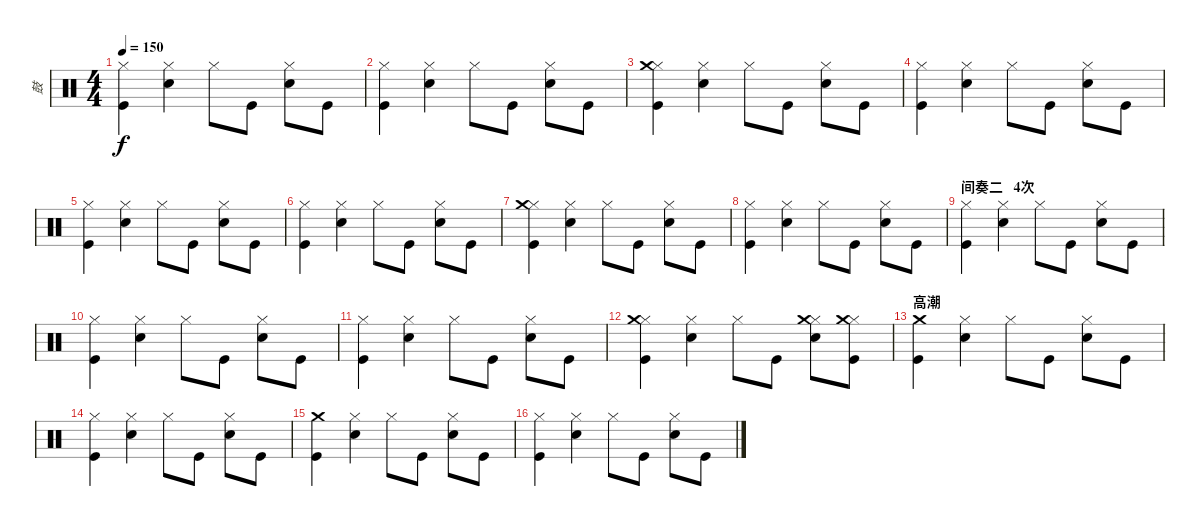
\track ("鼓" "鼓") {instrument percussion}
\staff {score}
\articulation defaults
\ts (4 4)
\tempo 150
\clef neutral
\ks c
("Kick (hit)" "Hi-Hat (closed)").4{dy f} ("Snare (hit) 2" "Hi-Hat (closed)").4 "Hi-Hat (closed)".8 "Kick (hit)".8 ("Snare (hit) 2" "Hi-Hat (closed)").8 "Kick (hit)".8 |
("Kick (hit)" "Hi-Hat (closed)").4 ("Snare (hit) 2" "Hi-Hat (closed)").4 "Hi-Hat (closed)".8 "Kick (hit)".8 ("Snare (hit) 2" "Hi-Hat (closed)").8 "Kick (hit)".8 |
("Kick (hit)" "Hi-Hat (closed)" "Crash medium (hit)").4 ("Snare (hit) 2" "Hi-Hat (closed)").4 "Hi-Hat (closed)".8 "Kick (hit)".8 ("Snare (hit) 2" "Hi-Hat (closed)").8 "Kick (hit)".8 |
("Kick (hit)" "Hi-Hat (closed)").4 ("Snare (hit) 2" "Hi-Hat (closed)").4 "Hi-Hat (closed)".8 "Kick (hit)".8 ("Snare (hit) 2" "Hi-Hat (closed)").8 "Kick (hit)".8 |
("Kick (hit)" "Hi-Hat (closed)").4 ("Snare (hit) 2" "Hi-Hat (closed)").4 "Hi-Hat (closed)".8 "Kick (hit)".8 ("Snare (hit) 2" "Hi-Hat (closed)").8 "Kick (hit)".8 |
("Kick (hit)" "Hi-Hat (closed)").4 ("Snare (hit) 2" "Hi-Hat (closed)").4 "Hi-Hat (closed)".8 "Kick (hit)".8 ("Snare (hit) 2" "Hi-Hat (closed)").8 "Kick (hit)".8 |
("Kick (hit)" "Hi-Hat (closed)" "Crash medium (hit)").4 ("Snare (hit) 2" "Hi-Hat (closed)").4 "Hi-Hat (closed)".8 "Kick (hit)".8 ("Snare (hit) 2" "Hi-Hat (closed)").8 "Kick (hit)".8 |
("Kick (hit)" "Hi-Hat (closed)").4 ("Snare (hit) 2" "Hi-Hat (closed)").4 "Hi-Hat (closed)".8 "Kick (hit)".8 ("Snare (hit) 2" "Hi-Hat (closed)").8 "Kick (hit)".8 |
\section ("" "间奏二   4次")
("Kick (hit)" "Hi-Hat (closed)").4 ("Snare (hit) 2" "Hi-Hat (closed)").4 "Hi-Hat (closed)".8 "Kick (hit)".8 ("Snare (hit) 2" "Hi-Hat (closed)").8 "Kick (hit)".8 |
("Kick (hit)" "Hi-Hat (closed)").4 ("Snare (hit) 2" "Hi-Hat (closed)").4 "Hi-Hat (closed)".8 "Kick (hit)".8 ("Snare (hit) 2" "Hi-Hat (closed)").8 "Kick (hit)".8 |
("Kick (hit)" "Hi-Hat (closed)").4 ("Snare (hit) 2" "Hi-Hat (closed)").4 "Hi-Hat (closed)".8 "Kick (hit)".8 ("Snare (hit) 2" "Hi-Hat (closed)").8 "Kick (hit)".8 |
("Kick (hit)" "Hi-Hat (closed)" "Crash medium (hit)").4 ("Snare (hit) 2" "Hi-Hat (closed)").4 "Hi-Hat (closed)".8 "Kick (hit)".8 ("Snare (hit) 2" "Hi-Hat (closed)" "Crash medium (hit)").8 ("Kick (hit)" "Hi-Hat (closed)" "Crash medium (hit)").8 |
\section ("" "高潮")
("Kick (hit)" "Crash medium (hit)").4 ("Snare (hit) 2" "Hi-Hat (closed)").4 "Hi-Hat (closed)".8 "Kick (hit)".8 ("Snare (hit) 2" "Hi-Hat (closed)").8 "Kick (hit)".8 |
("Kick (hit)" "Hi-Hat (closed)").4 ("Snare (hit) 2" "Hi-Hat (closed)").4 "Hi-Hat (closed)".8 "Kick (hit)".8 ("Snare (hit) 2" "Hi-Hat (closed)").8 "Kick (hit)".8 |
("Kick (hit)" "Crash medium (hit)").4 ("Snare (hit) 2" "Hi-Hat (closed)").4 "Hi-Hat (closed)".8 "Kick (hit)".8 ("Snare (hit) 2" "Hi-Hat (closed)").8 "Kick (hit)".8 |
("Kick (hit)" "Hi-Hat (closed)").4 ("Snare (hit) 2" "Hi-Hat (closed)").4 "Hi-Hat (closed)".8 "Kick (hit)".8 ("Snare (hit) 2" "Hi-Hat (closed)").8 "Kick (hit)".8
